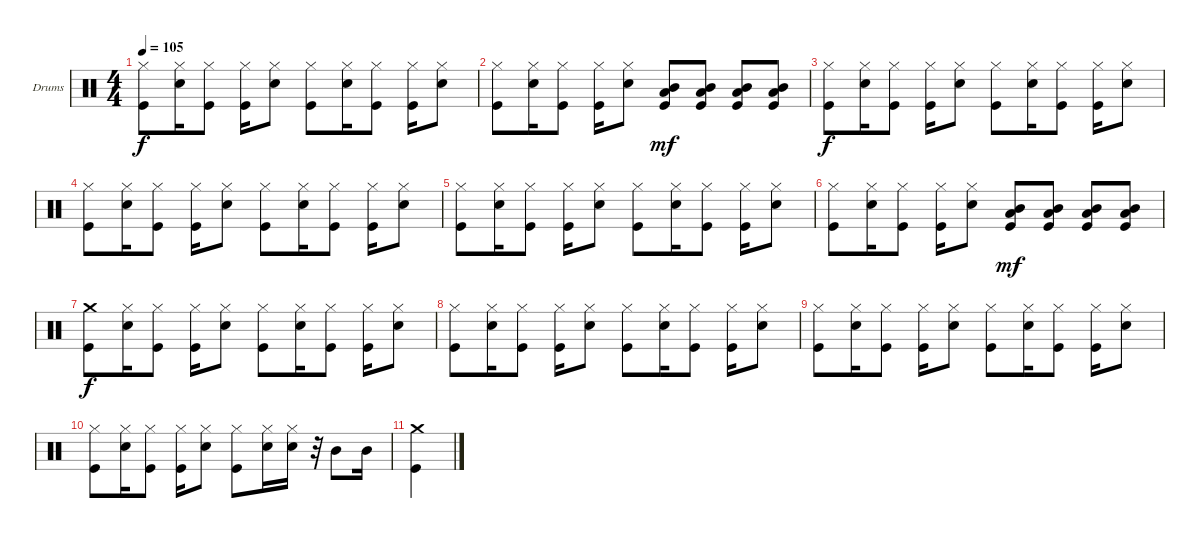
\defaultSystemsLayout 4
\bracketExtendMode groupsimilarinstruments
\firstSystemTrackNameOrientation horizontal
\otherSystemsTrackNameOrientation horizontal
\track ("Drumkit" "Drums") {instrument percussion}
\staff {score}
\articulation defaults
\ts (4 4)
\tempo 105
\clef neutral
\ks c
("Hi-Hat (closed)" "Kick (hit)").8{dy f} ("Hi-Hat (closed)" "Snare (hit) 2").16 ("Hi-Hat (closed)" "Kick (hit)").8 ("Hi-Hat (closed)" "Kick (hit)").16 ("Hi-Hat (closed)" "Snare (hit) 2").8 ("Hi-Hat (closed)" "Kick (hit)").8 ("Hi-Hat (closed)" "Snare (hit) 2").16 ("Hi-Hat (closed)" "Kick (hit)").8 ("Hi-Hat (closed)" "Kick (hit)").16 ("Hi-Hat (closed)" "Snare (hit) 2").8 |
("Hi-Hat (closed)" "Kick (hit)").8 ("Hi-Hat (closed)" "Snare (hit) 2").16 ("Hi-Hat (closed)" "Kick (hit)").8 ("Hi-Hat (closed)" "Kick (hit)").16 ("Hi-Hat (closed)" "Snare (hit) 2").8 ("Kick (hit)" "Mid Tom (hit)" "Low Tom (hit)").8{dy mf} ("Kick (hit)" "Mid Tom (hit)" "Low Tom (hit)").8 ("Kick (hit)" "Mid Tom (hit)" "Low Tom (hit)").8 ("Kick (hit)" "Mid Tom (hit)" "Low Tom (hit)").8 |
("Hi-Hat (closed)" "Kick (hit)").8{dy f} ("Hi-Hat (closed)" "Snare (hit) 2").16 ("Hi-Hat (closed)" "Kick (hit)").8 ("Hi-Hat (closed)" "Kick (hit)").16 ("Hi-Hat (closed)" "Snare (hit) 2").8 ("Hi-Hat (closed)" "Kick (hit)").8 ("Hi-Hat (closed)" "Snare (hit) 2").16 ("Hi-Hat (closed)" "Kick (hit)").8 ("Hi-Hat (closed)" "Kick (hit)").16 ("Hi-Hat (closed)" "Snare (hit) 2").8 |
("Hi-Hat (closed)" "Kick (hit)").8 ("Hi-Hat (closed)" "Snare (hit) 2").16 ("Hi-Hat (closed)" "Kick (hit)").8 ("Hi-Hat (closed)" "Kick (hit)").16 ("Hi-Hat (closed)" "Snare (hit) 2").8 ("Hi-Hat (closed)" "Kick (hit)").8 ("Hi-Hat (closed)" "Snare (hit) 2").16 ("Hi-Hat (closed)" "Kick (hit)").8 ("Hi-Hat (closed)" "Kick (hit)").16 ("Hi-Hat (closed)" "Snare (hit) 2").8 |
("Hi-Hat (closed)" "Kick (hit)").8 ("Hi-Hat (closed)" "Snare (hit) 2").16 ("Hi-Hat (closed)" "Kick (hit)").8 ("Hi-Hat (closed)" "Kick (hit)").16 ("Hi-Hat (closed)" "Snare (hit) 2").8 ("Hi-Hat (closed)" "Kick (hit)").8 ("Hi-Hat (closed)" "Snare (hit) 2").16 ("Hi-Hat (closed)" "Kick (hit)").8 ("Hi-Hat (closed)" "Kick (hit)").16 ("Hi-Hat (closed)" "Snare (hit) 2").8 |
("Hi-Hat (closed)" "Kick (hit)").8 ("Hi-Hat (closed)" "Snare (hit) 2").16 ("Hi-Hat (closed)" "Kick (hit)").8 ("Hi-Hat (closed)" "Kick (hit)").16 ("Hi-Hat (closed)" "Snare (hit) 2").8 ("Kick (hit)" "Mid Tom (hit)" "Low Tom (hit)").8{dy mf} ("Kick (hit)" "Mid Tom (hit)" "Low Tom (hit)").8 ("Kick (hit)" "Mid Tom (hit)" "Low Tom (hit)").8 ("Kick (hit)" "Mid Tom (hit)" "Low Tom (hit)").8 |
("Crash medium (hit)" "Kick (hit)").8{dy f} ("Hi-Hat (closed)" "Snare (hit) 2").16 ("Hi-Hat (closed)" "Kick (hit)").8 ("Hi-Hat (closed)" "Kick (hit)").16 ("Hi-Hat (closed)" "Snare (hit) 2").8 ("Hi-Hat (closed)" "Kick (hit)").8 ("Hi-Hat (closed)" "Snare (hit) 2").16 ("Hi-Hat (closed)" "Kick (hit)").8 ("Hi-Hat (closed)" "Kick (hit)").16 ("Hi-Hat (closed)" "Snare (hit) 2").8 |
("Hi-Hat (closed)" "Kick (hit)").8 ("Hi-Hat (closed)" "Snare (hit) 2").16 ("Hi-Hat (closed)" "Kick (hit)").8 ("Hi-Hat (closed)" "Kick (hit)").16 ("Hi-Hat (closed)" "Snare (hit) 2").8 ("Hi-Hat (closed)" "Kick (hit)").8 ("Hi-Hat (closed)" "Snare (hit) 2").16 ("Hi-Hat (closed)" "Kick (hit)").8 ("Hi-Hat (closed)" "Kick (hit)").16 ("Hi-Hat (closed)" "Snare (hit) 2").8 |
("Hi-Hat (closed)" "Kick (hit)").8 ("Hi-Hat (closed)" "Snare (hit) 2").16 ("Hi-Hat (closed)" "Kick (hit)").8 ("Hi-Hat (closed)" "Kick (hit)").16 ("Hi-Hat (closed)" "Snare (hit) 2").8 ("Hi-Hat (closed)" "Kick (hit)").8 ("Hi-Hat (closed)" "Snare (hit) 2").16 ("Hi-Hat (closed)" "Kick (hit)").8 ("Hi-Hat (closed)" "Kick (hit)").16 ("Hi-Hat (closed)" "Snare (hit) 2").8 |
("Hi-Hat (closed)" "Kick (hit)").8 ("Hi-Hat (closed)" "Snare (hit) 2").16 ("Hi-Hat (closed)" "Kick (hit)").8 ("Hi-Hat (closed)" "Kick (hit)").16 ("Hi-Hat (closed)" "Snare (hit) 2").8 ("Hi-Hat (closed)" "Kick (hit)").8 ("Hi-Hat (closed)" "Snare (hit) 2").16 ("Hi-Hat (closed)" "Snare (hit) 2").16 r.32 "Mid Tom (hit)".8 "Mid Tom (hit)".16 |
("Crash medium (hit)" "Kick (hit)").4
